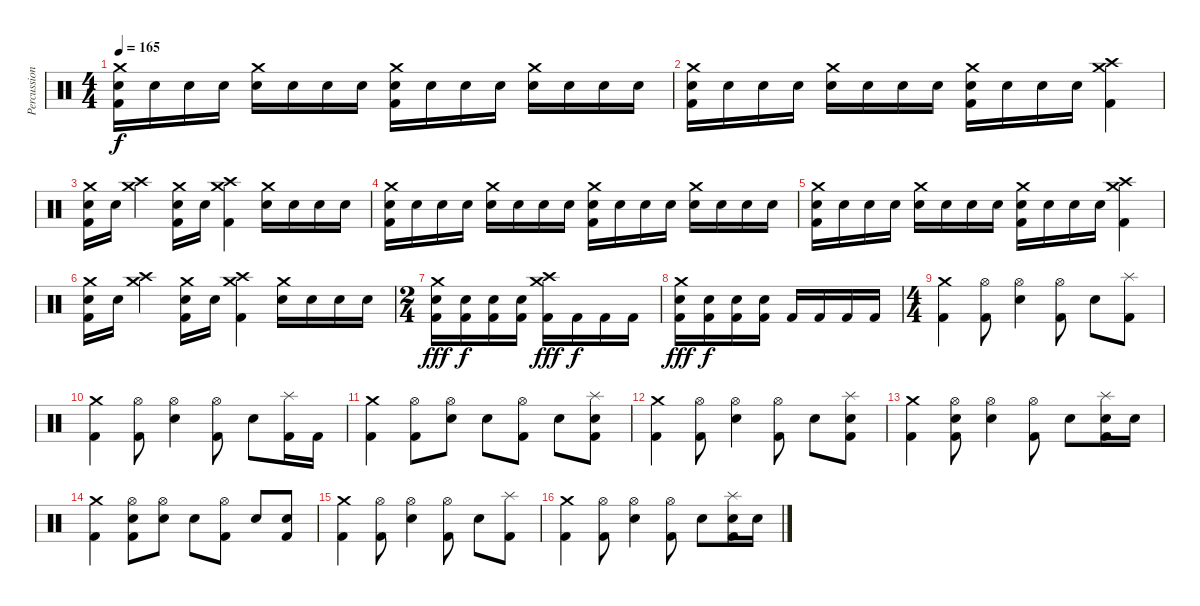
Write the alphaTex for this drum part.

\track ("Percussion" "Percussion") {instrument percussion}
\staff {score}
\articulation defaults
\ts (4 4)
\tempo 165
\clef neutral
\ks c
("Crash medium (hit)" "Electric Snare (hit)" "Kick (hit) 2").16{dy f} "Electric Snare (hit)".16 "Electric Snare (hit)".16 "Electric Snare (hit)".16 ("Crash medium (hit)" "Electric Snare (hit)").16 "Electric Snare (hit)".16 "Electric Snare (hit)".16 "Electric Snare (hit)".16 ("Crash medium (hit)" "Electric Snare (hit)" "Kick (hit) 2").16 "Electric Snare (hit)".16 "Electric Snare (hit)".16 "Electric Snare (hit)".16 ("Crash medium (hit)" "Electric Snare (hit)").16 "Electric Snare (hit)".16 "Electric Snare (hit)".16 "Electric Snare (hit)".16 |
("Crash medium (hit)" "Electric Snare (hit)" "Kick (hit) 2").16 "Electric Snare (hit)".16 "Electric Snare (hit)".16 "Electric Snare (hit)".16 ("Crash medium (hit)" "Electric Snare (hit)").16 "Electric Snare (hit)".16 "Electric Snare (hit)".16 "Electric Snare (hit)".16 ("Crash medium (hit)" "Electric Snare (hit)" "Kick (hit) 2").16 "Electric Snare (hit)".16 "Electric Snare (hit)".16 "Electric Snare (hit)".16 ("Crash medium (hit)" "Crash high (hit)" "Kick (hit) 2").4 |
("Crash medium (hit)" "Electric Snare (hit)" "Kick (hit) 2").16 "Electric Snare (hit)".16 ("Crash medium (hit)" "Crash high (hit)").4 ("Crash medium (hit)" "Electric Snare (hit)" "Kick (hit) 2").16 "Electric Snare (hit)".16 ("Crash medium (hit)" "Crash high (hit)" "Kick (hit) 2").4 ("Crash medium (hit)" "Electric Snare (hit)").16 "Electric Snare (hit)".16 "Electric Snare (hit)".16 "Electric Snare (hit)".16 |
("Crash medium (hit)" "Electric Snare (hit)" "Kick (hit) 2").16 "Electric Snare (hit)".16 "Electric Snare (hit)".16 "Electric Snare (hit)".16 ("Crash medium (hit)" "Electric Snare (hit)").16 "Electric Snare (hit)".16 "Electric Snare (hit)".16 "Electric Snare (hit)".16 ("Crash medium (hit)" "Electric Snare (hit)" "Kick (hit) 2").16 "Electric Snare (hit)".16 "Electric Snare (hit)".16 "Electric Snare (hit)".16 ("Crash medium (hit)" "Electric Snare (hit)").16 "Electric Snare (hit)".16 "Electric Snare (hit)".16 "Electric Snare (hit)".16 |
("Crash medium (hit)" "Electric Snare (hit)" "Kick (hit) 2").16 "Electric Snare (hit)".16 "Electric Snare (hit)".16 "Electric Snare (hit)".16 ("Crash medium (hit)" "Electric Snare (hit)").16 "Electric Snare (hit)".16 "Electric Snare (hit)".16 "Electric Snare (hit)".16 ("Crash medium (hit)" "Electric Snare (hit)" "Kick (hit) 2").16 "Electric Snare (hit)".16 "Electric Snare (hit)".16 "Electric Snare (hit)".16 ("Crash medium (hit)" "Crash high (hit)" "Kick (hit) 2").4 |
("Crash medium (hit)" "Electric Snare (hit)" "Kick (hit) 2").16 "Electric Snare (hit)".16 ("Crash medium (hit)" "Crash high (hit)").4 ("Crash medium (hit)" "Electric Snare (hit)" "Kick (hit) 2").16 "Electric Snare (hit)".16 ("Crash medium (hit)" "Crash high (hit)" "Kick (hit) 2").4 ("Crash medium (hit)" "Electric Snare (hit)").16 "Electric Snare (hit)".16 "Electric Snare (hit)".16 "Electric Snare (hit)".16 |
\ts (2 4)
("Crash medium (hit)" "Electric Snare (hit)" "Kick (hit) 2").16{dy fff} ("Electric Snare (hit)" "Kick (hit) 2").16{dy f} ("Electric Snare (hit)" "Kick (hit) 2").16 ("Electric Snare (hit)" "Kick (hit) 2").16 ("Crash medium (hit)" "Crash high (hit)" "Kick (hit) 2").16{dy fff} "Kick (hit) 2".16{dy f} "Kick (hit) 2".16 "Kick (hit) 2".16 |
("Crash medium (hit)" "Electric Snare (hit)" "Kick (hit) 2").16{dy fff} ("Electric Snare (hit)" "Kick (hit) 2").16{dy f} ("Electric Snare (hit)" "Kick (hit) 2").16 ("Electric Snare (hit)" "Kick (hit) 2").16 "Kick (hit) 2".16 "Kick (hit) 2".16 "Kick (hit) 2".16 "Kick (hit) 2".16 |
\ts (4 4)
("Crash medium (hit)" "Kick (hit) 2").4 ("Hi-Hat (open)" "Kick (hit) 2").8 ("Hi-Hat (open)" "Electric Snare (hit)").4 ("Hi-Hat (open)" "Kick (hit) 2").8 "Electric Snare (hit)".8 ("Splash (hit)" "Kick (hit) 2").8 |
("Crash medium (hit)" "Kick (hit) 2").4 ("Hi-Hat (open)" "Kick (hit) 2").8 ("Hi-Hat (open)" "Electric Snare (hit)").4 ("Hi-Hat (open)" "Kick (hit) 2").8 "Electric Snare (hit)".8 ("Splash (hit)" "Kick (hit) 2").16 "Kick (hit) 2".16 |
("Crash medium (hit)" "Kick (hit) 2").4 ("Hi-Hat (open)" "Kick (hit) 2").8 ("Hi-Hat (open)" "Electric Snare (hit)").8 "Electric Snare (hit)".8 ("Hi-Hat (open)" "Kick (hit) 2").8 "Electric Snare (hit)".8 ("Splash (hit)" "Electric Snare (hit)" "Kick (hit) 2").8 |
("Crash medium (hit)" "Kick (hit) 2").4 ("Hi-Hat (open)" "Kick (hit) 2").8 ("Hi-Hat (open)" "Electric Snare (hit)").4 ("Hi-Hat (open)" "Kick (hit) 2").8 "Electric Snare (hit)".8 ("Splash (hit)" "Electric Snare (hit)" "Kick (hit) 2").8 |
("Crash medium (hit)" "Kick (hit) 2").4 ("Hi-Hat (open)" "Electric Snare (hit)" "Kick (hit) 2").8 ("Hi-Hat (open)" "Electric Snare (hit)").4 ("Hi-Hat (open)" "Kick (hit) 2").8 "Electric Snare (hit)".8 ("Splash (hit)" "Electric Snare (hit)" "Kick (hit) 2").16 "Electric Snare (hit)".16 |
("Crash medium (hit)" "Kick (hit) 2").4 ("Hi-Hat (open)" "Electric Snare (hit)" "Kick (hit) 2").8 ("Hi-Hat (open)" "Electric Snare (hit)").8 "Electric Snare (hit)".8 ("Hi-Hat (open)" "Kick (hit) 2").8 "Electric Snare (hit)".8 ("Electric Snare (hit)" "Kick (hit) 2").8 |
("Crash medium (hit)" "Kick (hit) 2").4 ("Hi-Hat (open)" "Kick (hit) 2").8 ("Hi-Hat (open)" "Electric Snare (hit)").4 ("Hi-Hat (open)" "Kick (hit) 2").8 "Electric Snare (hit)".8 ("Splash (hit)" "Kick (hit) 2").8 |
("Crash medium (hit)" "Kick (hit) 2").4 ("Hi-Hat (open)" "Kick (hit) 2").8 ("Hi-Hat (open)" "Electric Snare (hit)").4 ("Hi-Hat (open)" "Kick (hit) 2").8 "Electric Snare (hit)".8 ("Splash (hit)" "Electric Snare (hit)" "Kick (hit) 2").16 "Electric Snare (hit)".16
